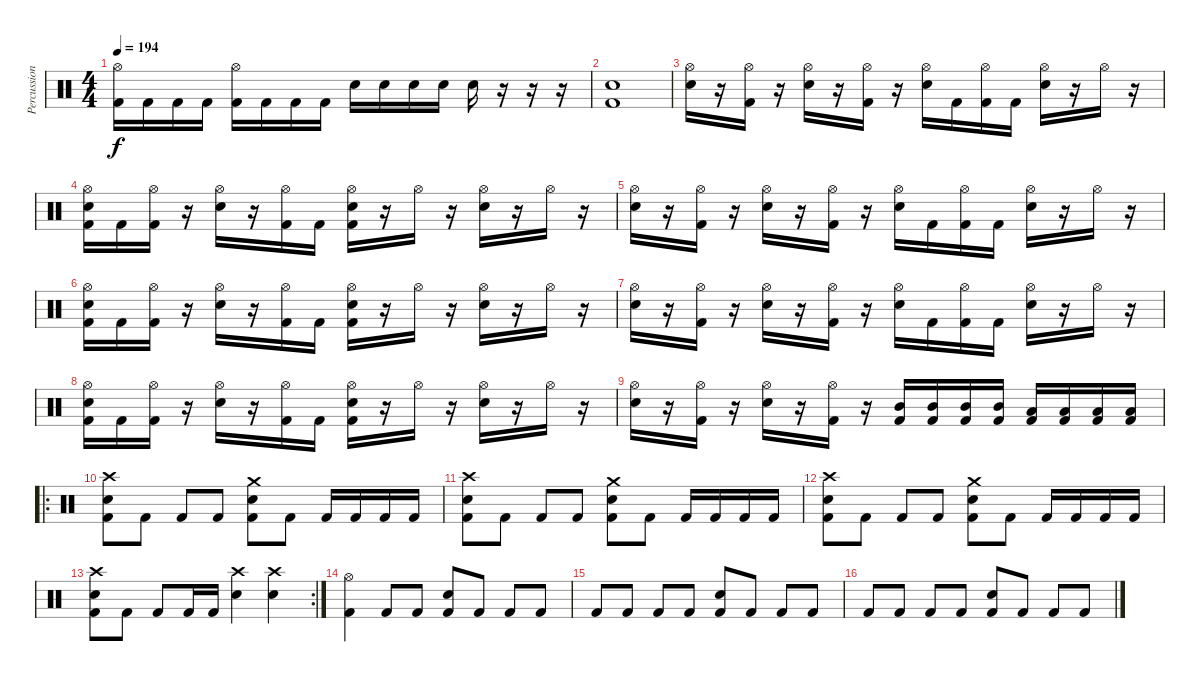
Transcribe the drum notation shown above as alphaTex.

\track ("Percussions" "Percussion") {instrument percussion}
\staff {score}
\articulation defaults
\ts (4 4)
\tempo 194
\clef neutral
\ks c
("Hi-Hat (open)" "Kick (hit) 2").16{dy f} "Kick (hit) 2".16 "Kick (hit) 2".16 "Kick (hit) 2".16 ("Hi-Hat (open)" "Kick (hit) 2").16 "Kick (hit) 2".16 "Kick (hit) 2".16 "Kick (hit) 2".16 "Snare (hit) 2".16 "Snare (hit) 2".16 "Snare (hit) 2".16 "Snare (hit) 2".16 "Snare (hit) 2".16 r.16 r.16 r.16 |
("Electric Snare (hit)" "Kick (hit) 2").1 |
("Hi-Hat (open)" "Electric Snare (hit)").16 r.16 ("Hi-Hat (open)" "Kick (hit) 2").16 r.16 ("Hi-Hat (open)" "Electric Snare (hit)").16 r.16 ("Hi-Hat (open)" "Kick (hit) 2").16 r.16 ("Hi-Hat (open)" "Electric Snare (hit)").16 "Kick (hit) 2".16 ("Hi-Hat (open)" "Kick (hit) 2").16 "Kick (hit) 2".16 ("Hi-Hat (open)" "Electric Snare (hit)").16 r.16 "Hi-Hat (open)".16 r.16 |
("Hi-Hat (open)" "Electric Snare (hit)" "Kick (hit) 2").16 "Kick (hit) 2".16 ("Hi-Hat (open)" "Kick (hit) 2").16 r.16 ("Hi-Hat (open)" "Electric Snare (hit)").16 r.16 ("Hi-Hat (open)" "Kick (hit) 2").16 "Kick (hit) 2".16 ("Hi-Hat (open)" "Electric Snare (hit)" "Kick (hit) 2").16 r.16 "Hi-Hat (open)".16 r.16 ("Hi-Hat (open)" "Electric Snare (hit)").16 r.16 "Hi-Hat (open)".16 r.16 |
("Hi-Hat (open)" "Electric Snare (hit)").16 r.16 ("Hi-Hat (open)" "Kick (hit) 2").16 r.16 ("Hi-Hat (open)" "Electric Snare (hit)").16 r.16 ("Hi-Hat (open)" "Kick (hit) 2").16 r.16 ("Hi-Hat (open)" "Electric Snare (hit)").16 "Kick (hit) 2".16 ("Hi-Hat (open)" "Kick (hit) 2").16 "Kick (hit) 2".16 ("Hi-Hat (open)" "Electric Snare (hit)").16 r.16 "Hi-Hat (open)".16 r.16 |
("Hi-Hat (open)" "Electric Snare (hit)" "Kick (hit) 2").16 "Kick (hit) 2".16 ("Hi-Hat (open)" "Kick (hit) 2").16 r.16 ("Hi-Hat (open)" "Electric Snare (hit)").16 r.16 ("Hi-Hat (open)" "Kick (hit) 2").16 "Kick (hit) 2".16 ("Hi-Hat (open)" "Electric Snare (hit)" "Kick (hit) 2").16 r.16 "Hi-Hat (open)".16 r.16 ("Hi-Hat (open)" "Electric Snare (hit)").16 r.16 "Hi-Hat (open)".16 r.16 |
("Hi-Hat (open)" "Electric Snare (hit)").16 r.16 ("Hi-Hat (open)" "Kick (hit) 2").16 r.16 ("Hi-Hat (open)" "Electric Snare (hit)").16 r.16 ("Hi-Hat (open)" "Kick (hit) 2").16 r.16 ("Hi-Hat (open)" "Electric Snare (hit)").16 "Kick (hit) 2".16 ("Hi-Hat (open)" "Kick (hit) 2").16 "Kick (hit) 2".16 ("Hi-Hat (open)" "Electric Snare (hit)").16 r.16 "Hi-Hat (open)".16 r.16 |
("Hi-Hat (open)" "Electric Snare (hit)" "Kick (hit) 2").16 "Kick (hit) 2".16 ("Hi-Hat (open)" "Kick (hit) 2").16 r.16 ("Hi-Hat (open)" "Electric Snare (hit)").16 r.16 ("Hi-Hat (open)" "Kick (hit) 2").16 "Kick (hit) 2".16 ("Hi-Hat (open)" "Electric Snare (hit)" "Kick (hit) 2").16 r.16 "Hi-Hat (open)".16 r.16 ("Hi-Hat (open)" "Electric Snare (hit)").16 r.16 "Hi-Hat (open)".16 r.16 |
("Hi-Hat (open)" "Electric Snare (hit)").16 r.16 ("Hi-Hat (open)" "Kick (hit) 2").16 r.16 ("Hi-Hat (open)" "Electric Snare (hit)").16 r.16 ("Hi-Hat (open)" "Kick (hit) 2").16 r.16 ("Mid Tom (hit)" "Kick (hit) 2").16 ("Mid Tom (hit)" "Kick (hit) 2").16 ("Mid Tom (hit)" "Kick (hit) 2").16 ("Mid Tom (hit)" "Kick (hit) 2").16 ("Low Tom (hit)" "Kick (hit) 2").16 ("Low Tom (hit)" "Kick (hit) 2").16 ("Low Tom (hit)" "Kick (hit) 2").16 ("Low Tom (hit)" "Kick (hit) 2").16 |
\ro
("Crash high (hit)" "Electric Snare (hit)" "Kick (hit) 2").8 "Kick (hit) 2".8 "Kick (hit) 2".8 "Kick (hit) 2".8 ("Crash medium (hit)" "Electric Snare (hit)" "Kick (hit) 2").8 "Kick (hit) 2".8 "Kick (hit) 2".16 "Kick (hit) 2".16 "Kick (hit) 2".16 "Kick (hit) 2".16 |
("Crash high (hit)" "Electric Snare (hit)" "Kick (hit) 2").8 "Kick (hit) 2".8 "Kick (hit) 2".8 "Kick (hit) 2".8 ("Crash medium (hit)" "Electric Snare (hit)" "Kick (hit) 2").8 "Kick (hit) 2".8 "Kick (hit) 2".16 "Kick (hit) 2".16 "Kick (hit) 2".16 "Kick (hit) 2".16 |
("Crash high (hit)" "Electric Snare (hit)" "Kick (hit) 2").8 "Kick (hit) 2".8 "Kick (hit) 2".8 "Kick (hit) 2".8 ("Crash medium (hit)" "Electric Snare (hit)" "Kick (hit) 2").8 "Kick (hit) 2".8 "Kick (hit) 2".16 "Kick (hit) 2".16 "Kick (hit) 2".16 "Kick (hit) 2".16 |
\rc 2
("Crash high (hit)" "Electric Snare (hit)" "Kick (hit) 2").8 "Kick (hit) 2".8 "Kick (hit) 2".8 "Kick (hit) 2".16 "Kick (hit) 2".16 ("Crash high (hit)" "Electric Snare (hit)").4 ("Crash high (hit)" "Electric Snare (hit)").4 |
("Hi-Hat (open)" "Kick (hit) 2").4 "Kick (hit) 2".8 "Kick (hit) 2".8 ("Snare (hit) 2" "Kick (hit) 2").8 "Kick (hit) 2".8 "Kick (hit) 2".8 "Kick (hit) 2".8 |
"Kick (hit) 2".8 "Kick (hit) 2".8 "Kick (hit) 2".8 "Kick (hit) 2".8 ("Snare (hit) 2" "Kick (hit) 2").8 "Kick (hit) 2".8 "Kick (hit) 2".8 "Kick (hit) 2".8 |
"Kick (hit) 2".8 "Kick (hit) 2".8 "Kick (hit) 2".8 "Kick (hit) 2".8 ("Snare (hit) 2" "Kick (hit) 2").8 "Kick (hit) 2".8 "Kick (hit) 2".8 "Kick (hit) 2".8
